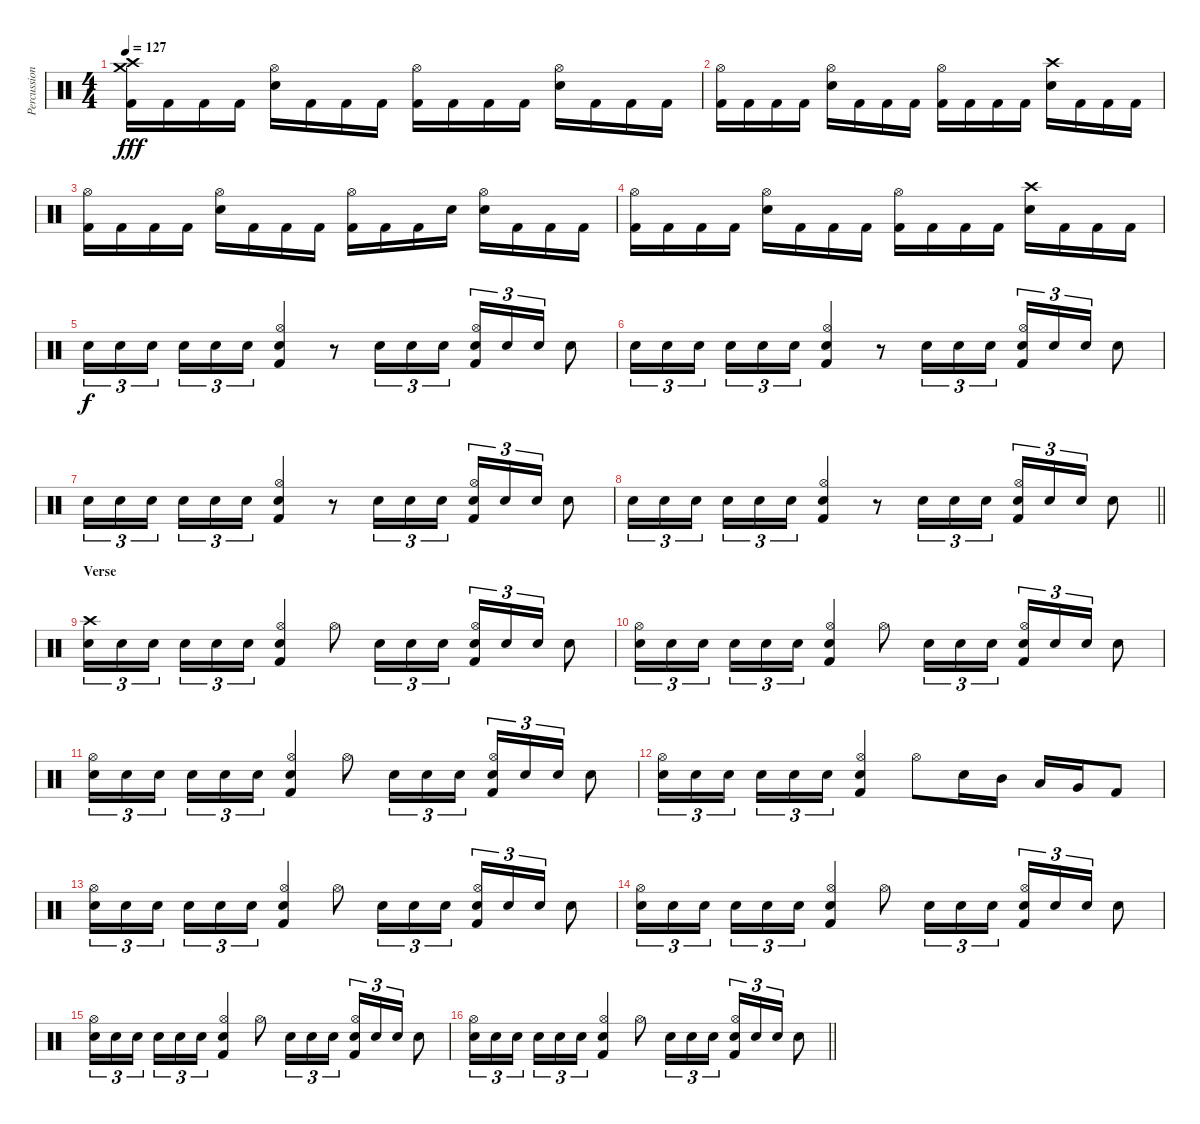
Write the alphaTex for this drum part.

\track ("Percussion" "Percussion") {instrument percussion}
\staff {score}
\articulation defaults
\ts (4 4)
\tempo 127
\clef neutral
\ks c
("Crash high (hit)" "Crash medium (hit)" "Kick (hit) 2").16{dy fff} "Kick (hit) 2".16 "Kick (hit) 2".16 "Kick (hit) 2".16 ("Hi-Hat (open)" "Snare (hit) 2").16 "Kick (hit) 2".16 "Kick (hit) 2".16 "Kick (hit) 2".16 ("Hi-Hat (open)" "Kick (hit) 2").16 "Kick (hit) 2".16 "Kick (hit) 2".16 "Kick (hit) 2".16 ("Hi-Hat (open)" "Snare (hit) 2").16 "Kick (hit) 2".16 "Kick (hit) 2".16 "Kick (hit) 2".16 |
("Hi-Hat (open)" "Kick (hit) 2").16 "Kick (hit) 2".16 "Kick (hit) 2".16 "Kick (hit) 2".16 ("Hi-Hat (open)" "Snare (hit) 2").16 "Kick (hit) 2".16 "Kick (hit) 2".16 "Kick (hit) 2".16 ("Hi-Hat (open)" "Kick (hit) 2").16 "Kick (hit) 2".16 "Kick (hit) 2".16 "Kick (hit) 2".16 ("Crash high (hit)" "Snare (hit) 2").16 "Kick (hit) 2".16 "Kick (hit) 2".16 "Kick (hit) 2".16 |
("Hi-Hat (open)" "Kick (hit) 2").16 "Kick (hit) 2".16 "Kick (hit) 2".16 "Kick (hit) 2".16 ("Hi-Hat (open)" "Snare (hit) 2").16 "Kick (hit) 2".16 "Kick (hit) 2".16 "Kick (hit) 2".16 ("Hi-Hat (open)" "Kick (hit) 2").16 "Kick (hit) 2".16 "Kick (hit) 2".16 "Snare (hit) 2".16 ("Hi-Hat (open)" "Snare (hit) 2").16 "Kick (hit) 2".16 "Kick (hit) 2".16 "Kick (hit) 2".16 |
("Hi-Hat (open)" "Kick (hit) 2").16 "Kick (hit) 2".16 "Kick (hit) 2".16 "Kick (hit) 2".16 ("Hi-Hat (open)" "Snare (hit) 2").16 "Kick (hit) 2".16 "Kick (hit) 2".16 "Kick (hit) 2".16 ("Hi-Hat (open)" "Kick (hit) 2").16 "Kick (hit) 2".16 "Kick (hit) 2".16 "Kick (hit) 2".16 ("Crash high (hit)" "Snare (hit) 2").16 "Kick (hit) 2".16 "Kick (hit) 2".16 "Kick (hit) 2".16 |
"Snare (hit) 2".16{tu (3 2) dy f} "Snare (hit) 2".16{tu (3 2)} "Snare (hit) 2".16{tu (3 2) beam splitsecondary} "Snare (hit) 2".16{tu (3 2)} "Snare (hit) 2".16{tu (3 2)} "Snare (hit) 2".16{tu (3 2)} ("Hi-Hat (open)" "Snare (hit) 2" "Kick (hit) 2").4 r.8 "Snare (hit) 2".16{tu (3 2)} "Snare (hit) 2".16{tu (3 2)} "Snare (hit) 2".16{tu (3 2)} ("Hi-Hat (open)" "Snare (hit) 2" "Kick (hit) 2").16{tu (3 2)} "Snare (hit) 2".16{tu (3 2)} "Snare (hit) 2".16{tu (3 2)} "Snare (hit) 2".8 |
"Snare (hit) 2".16{tu (3 2)} "Snare (hit) 2".16{tu (3 2)} "Snare (hit) 2".16{tu (3 2) beam splitsecondary} "Snare (hit) 2".16{tu (3 2)} "Snare (hit) 2".16{tu (3 2)} "Snare (hit) 2".16{tu (3 2)} ("Hi-Hat (open)" "Snare (hit) 2" "Kick (hit) 2").4 r.8 "Snare (hit) 2".16{tu (3 2)} "Snare (hit) 2".16{tu (3 2)} "Snare (hit) 2".16{tu (3 2)} ("Hi-Hat (open)" "Snare (hit) 2" "Kick (hit) 2").16{tu (3 2)} "Snare (hit) 2".16{tu (3 2)} "Snare (hit) 2".16{tu (3 2)} "Snare (hit) 2".8 |
"Snare (hit) 2".16{tu (3 2)} "Snare (hit) 2".16{tu (3 2)} "Snare (hit) 2".16{tu (3 2) beam splitsecondary} "Snare (hit) 2".16{tu (3 2)} "Snare (hit) 2".16{tu (3 2)} "Snare (hit) 2".16{tu (3 2)} ("Hi-Hat (open)" "Snare (hit) 2" "Kick (hit) 2").4 r.8 "Snare (hit) 2".16{tu (3 2)} "Snare (hit) 2".16{tu (3 2)} "Snare (hit) 2".16{tu (3 2)} ("Hi-Hat (open)" "Snare (hit) 2" "Kick (hit) 2").16{tu (3 2)} "Snare (hit) 2".16{tu (3 2)} "Snare (hit) 2".16{tu (3 2)} "Snare (hit) 2".8 |
\barLineRight lightlight "Snare (hit) 2".16{tu (3 2)} "Snare (hit) 2".16{tu (3 2)} "Snare (hit) 2".16{tu (3 2) beam splitsecondary} "Snare (hit) 2".16{tu (3 2)} "Snare (hit) 2".16{tu (3 2)} "Snare (hit) 2".16{tu (3 2)}
("Hi-Hat (open)" "Snare (hit) 2" "Kick (hit) 2").4 r.8 "Snare (hit) 2".16{tu (3 2)} "Snare (hit) 2".16{tu (3 2)} "Snare (hit) 2".16{tu (3 2)} ("Hi-Hat (open)" "Snare (hit) 2" "Kick (hit) 2").16{tu (3 2)} "Snare (hit) 2".16{tu (3 2)} "Snare (hit) 2".16{tu (3 2)} "Snare (hit) 2".8 |
\section ("" "Verse")
("Crash high (hit)" "Snare (hit) 2").16{tu (3 2)} "Snare (hit) 2".16{tu (3 2)} "Snare (hit) 2".16{tu (3 2) beam splitsecondary} "Snare (hit) 2".16{tu (3 2)} "Snare (hit) 2".16{tu (3 2)} "Snare (hit) 2".16{tu (3 2)} ("Hi-Hat (open)" "Snare (hit) 2" "Kick (hit) 2").4 "Hi-Hat (open)".8 "Snare (hit) 2".16{tu (3 2)} "Snare (hit) 2".16{tu (3 2)} "Snare (hit) 2".16{tu (3 2)} ("Hi-Hat (open)" "Snare (hit) 2" "Kick (hit) 2").16{tu (3 2)} "Snare (hit) 2".16{tu (3 2)} "Snare (hit) 2".16{tu (3 2)} "Snare (hit) 2".8 |
("Hi-Hat (open)" "Snare (hit) 2").16{tu (3 2)} "Snare (hit) 2".16{tu (3 2)} "Snare (hit) 2".16{tu (3 2) beam splitsecondary} "Snare (hit) 2".16{tu (3 2)} "Snare (hit) 2".16{tu (3 2)} "Snare (hit) 2".16{tu (3 2)} ("Hi-Hat (open)" "Snare (hit) 2" "Kick (hit) 2").4 "Hi-Hat (open)".8 "Snare (hit) 2".16{tu (3 2)} "Snare (hit) 2".16{tu (3 2)} "Snare (hit) 2".16{tu (3 2)} ("Hi-Hat (open)" "Snare (hit) 2" "Kick (hit) 2").16{tu (3 2)} "Snare (hit) 2".16{tu (3 2)} "Snare (hit) 2".16{tu (3 2)} "Snare (hit) 2".8 |
("Hi-Hat (open)" "Snare (hit) 2").16{tu (3 2)} "Snare (hit) 2".16{tu (3 2)} "Snare (hit) 2".16{tu (3 2) beam splitsecondary} "Snare (hit) 2".16{tu (3 2)} "Snare (hit) 2".16{tu (3 2)} "Snare (hit) 2".16{tu (3 2)} ("Hi-Hat (open)" "Snare (hit) 2" "Kick (hit) 2").4 "Hi-Hat (open)".8 "Snare (hit) 2".16{tu (3 2)} "Snare (hit) 2".16{tu (3 2)} "Snare (hit) 2".16{tu (3 2)} ("Hi-Hat (open)" "Snare (hit) 2" "Kick (hit) 2").16{tu (3 2)} "Snare (hit) 2".16{tu (3 2)} "Snare (hit) 2".16{tu (3 2)} "Snare (hit) 2".8 |
("Hi-Hat (open)" "Snare (hit) 2").16{tu (3 2)} "Snare (hit) 2".16{tu (3 2)} "Snare (hit) 2".16{tu (3 2) beam splitsecondary} "Snare (hit) 2".16{tu (3 2)} "Snare (hit) 2".16{tu (3 2)} "Snare (hit) 2".16{tu (3 2)} ("Hi-Hat (open)" "Snare (hit) 2" "Kick (hit) 2").4 "Hi-Hat (open)".8 "Snare (hit) 2".16 "Mid Tom (hit)".16 "Low Tom (hit)".16 "Very Low Tom (hit)".16 "Kick (hit) 2".8 |
("Hi-Hat (open)" "Snare (hit) 2").16{tu (3 2)} "Snare (hit) 2".16{tu (3 2)} "Snare (hit) 2".16{tu (3 2) beam splitsecondary} "Snare (hit) 2".16{tu (3 2)} "Snare (hit) 2".16{tu (3 2)} "Snare (hit) 2".16{tu (3 2)} ("Hi-Hat (open)" "Snare (hit) 2" "Kick (hit) 2").4 "Hi-Hat (open)".8 "Snare (hit) 2".16{tu (3 2)} "Snare (hit) 2".16{tu (3 2)} "Snare (hit) 2".16{tu (3 2)} ("Hi-Hat (open)" "Snare (hit) 2" "Kick (hit) 2").16{tu (3 2)} "Snare (hit) 2".16{tu (3 2)} "Snare (hit) 2".16{tu (3 2)} "Snare (hit) 2".8 |
("Hi-Hat (open)" "Snare (hit) 2").16{tu (3 2)} "Snare (hit) 2".16{tu (3 2)} "Snare (hit) 2".16{tu (3 2) beam splitsecondary} "Snare (hit) 2".16{tu (3 2)} "Snare (hit) 2".16{tu (3 2)} "Snare (hit) 2".16{tu (3 2)} ("Hi-Hat (open)" "Snare (hit) 2" "Kick (hit) 2").4 "Hi-Hat (open)".8 "Snare (hit) 2".16{tu (3 2)} "Snare (hit) 2".16{tu (3 2)} "Snare (hit) 2".16{tu (3 2)} ("Hi-Hat (open)" "Snare (hit) 2" "Kick (hit) 2").16{tu (3 2)} "Snare (hit) 2".16{tu (3 2)} "Snare (hit) 2".16{tu (3 2)} "Snare (hit) 2".8 |
("Hi-Hat (open)" "Snare (hit) 2").16{tu (3 2)} "Snare (hit) 2".16{tu (3 2)} "Snare (hit) 2".16{tu (3 2) beam splitsecondary} "Snare (hit) 2".16{tu (3 2)} "Snare (hit) 2".16{tu (3 2)} "Snare (hit) 2".16{tu (3 2)} ("Hi-Hat (open)" "Snare (hit) 2" "Kick (hit) 2").4 "Hi-Hat (open)".8 "Snare (hit) 2".16{tu (3 2)} "Snare (hit) 2".16{tu (3 2)} "Snare (hit) 2".16{tu (3 2)} ("Hi-Hat (open)" "Snare (hit) 2" "Kick (hit) 2").16{tu (3 2)} "Snare (hit) 2".16{tu (3 2)} "Snare (hit) 2".16{tu (3 2)} "Snare (hit) 2".8 |
\barLineRight lightlight
("Hi-Hat (open)" "Snare (hit) 2").16{tu (3 2)} "Snare (hit) 2".16{tu (3 2)} "Snare (hit) 2".16{tu (3 2) beam splitsecondary} "Snare (hit) 2".16{tu (3 2)} "Snare (hit) 2".16{tu (3 2)} "Snare (hit) 2".16{tu (3 2)} ("Hi-Hat (open)" "Snare (hit) 2" "Kick (hit) 2").4 "Hi-Hat (open)".8 "Snare (hit) 2".16{tu (3 2)} "Snare (hit) 2".16{tu (3 2)} "Snare (hit) 2".16{tu (3 2)} ("Hi-Hat (open)" "Snare (hit) 2" "Kick (hit) 2").16{tu (3 2)} "Snare (hit) 2".16{tu (3 2)} "Snare (hit) 2".16{tu (3 2)} "Snare (hit) 2".8
